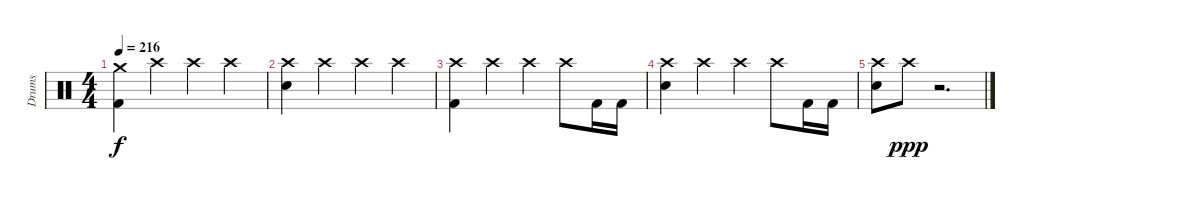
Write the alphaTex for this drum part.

\track ("Drums" "Drums") {instrument percussion}
\staff {score}
\articulation defaults
\ts (4 4)
\tempo 216
\clef neutral
\ks c
("Crash medium (hit)" "Kick (hit) 2").4{dy f} "Crash high (hit)".4 "Crash high (hit)".4 "Crash high (hit)".4 |
("Crash high (hit)" "Electric Snare (hit)").4 "Crash high (hit)".4 "Crash high (hit)".4 "Crash high (hit)".4 |
("Crash high (hit)" "Kick (hit) 2").4 "Crash high (hit)".4 "Crash high (hit)".4 "Crash high (hit)".8 "Kick (hit) 2".16 "Kick (hit) 2".16 |
("Crash high (hit)" "Electric Snare (hit)").4 "Crash high (hit)".4 "Crash high (hit)".4 "Crash high (hit)".8 "Kick (hit) 2".16 "Kick (hit) 2".16 |
("Electric Snare (hit)" "Crash high (hit)").8 "Crash high (hit)".8{dy ppp} r.2{d}
